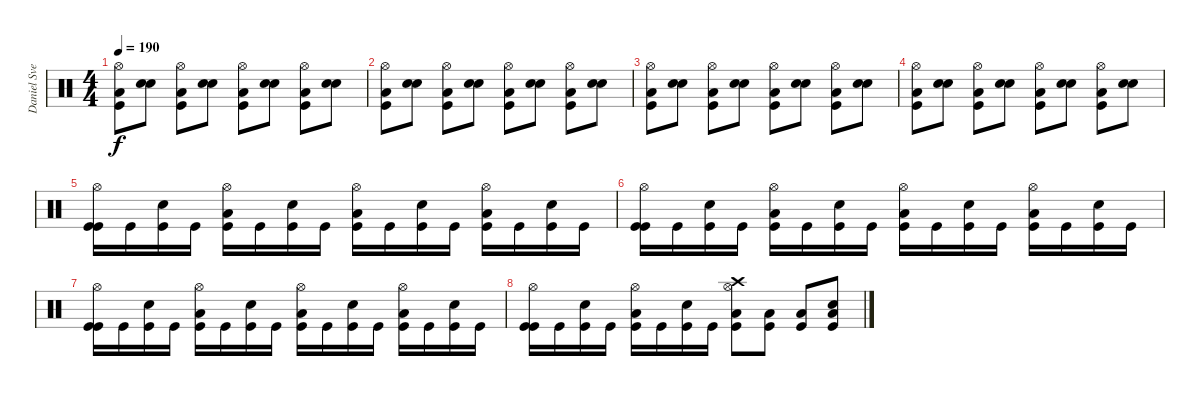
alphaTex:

\track ("Daniel Svensson" "Daniel Sve") {instrument percussion}
\staff {score}
\articulation defaults
\ts (4 4)
\tempo 190
\clef neutral
\ks c
("Hi-Hat (open)" "Low Floor Tom (hit)" "Kick (hit)").8{dy f} ("Electric Snare (hit)" "Electric Snare (hit)").8 ("Hi-Hat (open)" "Low Floor Tom (hit)" "Kick (hit)").8 ("Electric Snare (hit)" "Electric Snare (hit)").8 ("Hi-Hat (open)" "Low Floor Tom (hit)" "Kick (hit)").8 ("Electric Snare (hit)" "Electric Snare (hit)").8 ("Hi-Hat (open)" "Low Floor Tom (hit)" "Kick (hit)").8 ("Electric Snare (hit)" "Electric Snare (hit)").8 |
("Hi-Hat (open)" "Low Floor Tom (hit)" "Kick (hit)").8 ("Electric Snare (hit)" "Electric Snare (hit)").8 ("Hi-Hat (open)" "Low Floor Tom (hit)" "Kick (hit)").8 ("Electric Snare (hit)" "Electric Snare (hit)").8 ("Hi-Hat (open)" "Low Floor Tom (hit)" "Kick (hit)").8 ("Electric Snare (hit)" "Electric Snare (hit)").8 ("Hi-Hat (open)" "Low Floor Tom (hit)" "Kick (hit)").8 ("Electric Snare (hit)" "Electric Snare (hit)").8 |
("Hi-Hat (open)" "Low Floor Tom (hit)" "Kick (hit)").8 ("Electric Snare (hit)" "Electric Snare (hit)").8 ("Hi-Hat (open)" "Low Floor Tom (hit)" "Kick (hit)").8 ("Electric Snare (hit)" "Electric Snare (hit)").8 ("Hi-Hat (open)" "Low Floor Tom (hit)" "Kick (hit)").8 ("Electric Snare (hit)" "Electric Snare (hit)").8 ("Hi-Hat (open)" "Low Floor Tom (hit)" "Kick (hit)").8 ("Electric Snare (hit)" "Electric Snare (hit)").8 |
("Hi-Hat (open)" "Low Floor Tom (hit)" "Kick (hit)").8 ("Electric Snare (hit)" "Electric Snare (hit)").8 ("Hi-Hat (open)" "Low Floor Tom (hit)" "Kick (hit)").8 ("Electric Snare (hit)" "Electric Snare (hit)").8 ("Hi-Hat (open)" "Low Floor Tom (hit)" "Kick (hit)").8 ("Electric Snare (hit)" "Electric Snare (hit)").8 ("Hi-Hat (open)" "Low Floor Tom (hit)" "Kick (hit)").8 ("Electric Snare (hit)" "Electric Snare (hit)").8 |
("Hi-Hat (open)" "Kick (hit)" "Kick (hit)").16 "Kick (hit)".16 ("Electric Snare (hit)" "Kick (hit)").16 "Kick (hit)".16 ("Hi-Hat (open)" "Low Floor Tom (hit)" "Kick (hit)").16 "Kick (hit)".16 ("Electric Snare (hit)" "Kick (hit)").16 "Kick (hit)".16 ("Hi-Hat (open)" "Low Floor Tom (hit)" "Kick (hit)").16 "Kick (hit)".16 ("Electric Snare (hit)" "Kick (hit)").16 "Kick (hit)".16 ("Hi-Hat (open)" "Low Floor Tom (hit)" "Kick (hit)").16 "Kick (hit)".16 ("Electric Snare (hit)" "Kick (hit)").16 "Kick (hit)".16 |
("Hi-Hat (open)" "Kick (hit)" "Kick (hit)").16 "Kick (hit)".16 ("Electric Snare (hit)" "Kick (hit)").16 "Kick (hit)".16 ("Hi-Hat (open)" "Low Floor Tom (hit)" "Kick (hit)").16 "Kick (hit)".16 ("Electric Snare (hit)" "Kick (hit)").16 "Kick (hit)".16 ("Hi-Hat (open)" "Low Floor Tom (hit)" "Kick (hit)").16 "Kick (hit)".16 ("Electric Snare (hit)" "Kick (hit)").16 "Kick (hit)".16 ("Hi-Hat (open)" "Low Floor Tom (hit)" "Kick (hit)").16 "Kick (hit)".16 ("Electric Snare (hit)" "Kick (hit)").16 "Kick (hit)".16 |
("Hi-Hat (open)" "Kick (hit)" "Kick (hit)").16 "Kick (hit)".16 ("Electric Snare (hit)" "Kick (hit)").16 "Kick (hit)".16 ("Hi-Hat (open)" "Low Floor Tom (hit)" "Kick (hit)").16 "Kick (hit)".16 ("Electric Snare (hit)" "Kick (hit)").16 "Kick (hit)".16 ("Hi-Hat (open)" "Low Floor Tom (hit)" "Kick (hit)").16 "Kick (hit)".16 ("Electric Snare (hit)" "Kick (hit)").16 "Kick (hit)".16 ("Hi-Hat (open)" "Low Floor Tom (hit)" "Kick (hit)").16 "Kick (hit)".16 ("Electric Snare (hit)" "Kick (hit)").16 "Kick (hit)".16 |
("Hi-Hat (open)" "Kick (hit)" "Kick (hit)").16 "Kick (hit)".16 ("Electric Snare (hit)" "Kick (hit)").16 "Kick (hit)".16 ("Hi-Hat (open)" "Low Floor Tom (hit)" "Kick (hit)").16 "Kick (hit)".16 ("Electric Snare (hit)" "Kick (hit)").16 "Kick (hit)".16 ("Crash high (hit)" "Hi-Hat (open)" "Low Floor Tom (hit)" "Kick (hit)").8 ("Low Floor Tom (hit)" "Kick (hit)").8 ("Low Floor Tom (hit)" "Kick (hit)").8 ("Electric Snare (hit)" "Low Floor Tom (hit)" "Kick (hit)").8
